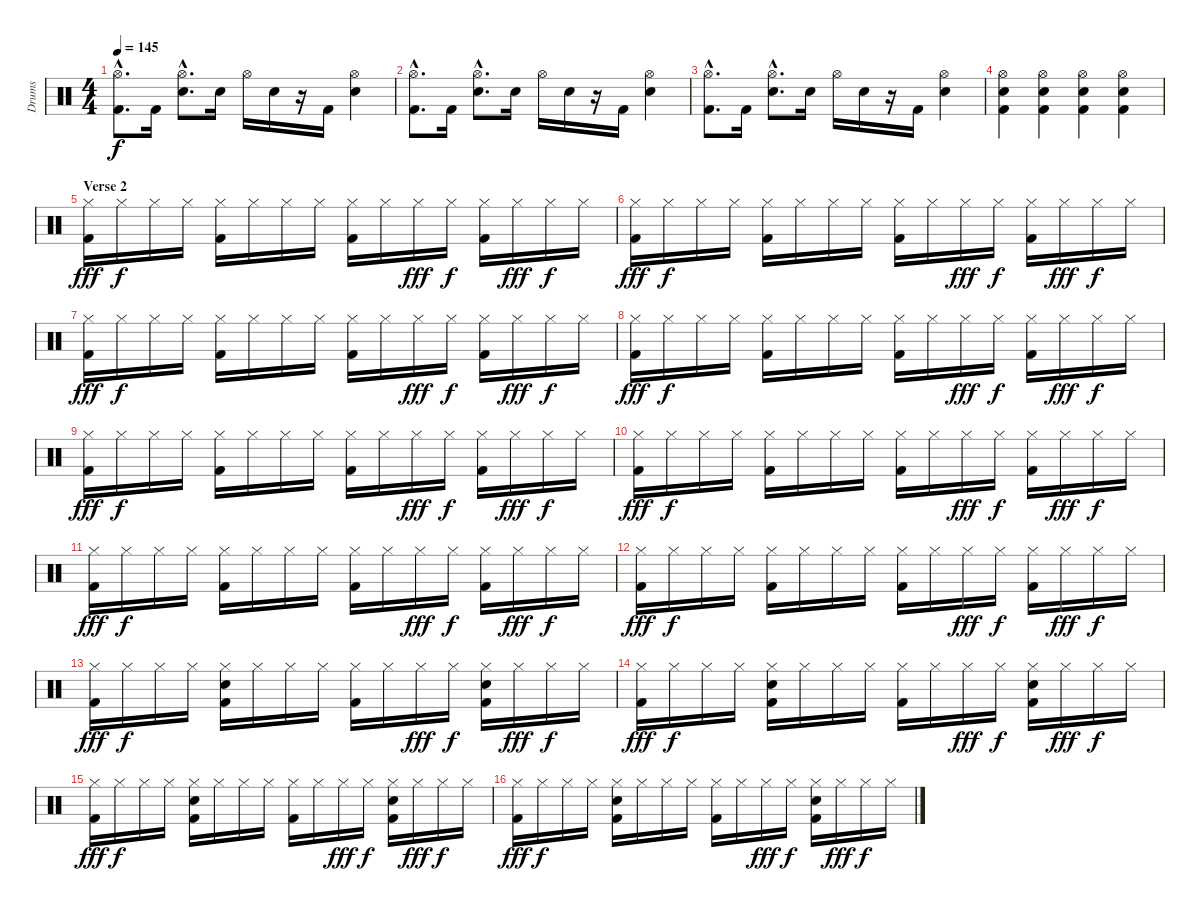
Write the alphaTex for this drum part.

\track ("Drums" "Drums") {instrument percussion}
\staff {score}
\articulation defaults
\ts (4 4)
\tempo 145
\clef neutral
\ks c
("Hi-Hat (open)"{hac} "Kick (hit) 2"{hac}).8{d dy f} "Kick (hit) 2".16 ("Hi-Hat (open)"{hac} "Electric Snare (hit)"{hac}).8{d} "Electric Snare (hit)".16 "Hi-Hat (open)".16 "Electric Snare (hit)".16 r.16 "Kick (hit) 2".16 ("Hi-Hat (open)" "Electric Snare (hit)").4 |
("Hi-Hat (open)"{hac} "Kick (hit) 2"{hac}).8{d} "Kick (hit) 2".16 ("Hi-Hat (open)"{hac} "Electric Snare (hit)"{hac}).8{d} "Electric Snare (hit)".16 "Hi-Hat (open)".16 "Electric Snare (hit)".16 r.16 "Kick (hit) 2".16 ("Hi-Hat (open)" "Electric Snare (hit)").4 |
("Hi-Hat (open)"{hac} "Kick (hit) 2"{hac}).8{d} "Kick (hit) 2".16 ("Hi-Hat (open)"{hac} "Electric Snare (hit)"{hac}).8{d} "Electric Snare (hit)".16 "Hi-Hat (open)".16 "Electric Snare (hit)".16 r.16 "Kick (hit) 2".16 ("Hi-Hat (open)" "Electric Snare (hit)").4 |
("Hi-Hat (open)" "Electric Snare (hit)" "Kick (hit) 2").4 ("Hi-Hat (open)" "Electric Snare (hit)" "Kick (hit) 2").4 ("Hi-Hat (open)" "Electric Snare (hit)" "Kick (hit) 2").4 ("Hi-Hat (open)" "Electric Snare (hit)" "Kick (hit) 2").4 |
\section ("" "Verse 2")
("Hi-Hat (closed)" "Kick (hit) 2").16{dy fff} "Hi-Hat (closed)".16{dy f} "Hi-Hat (closed)".16 "Hi-Hat (closed)".16 ("Hi-Hat (closed)" "Kick (hit) 2").16 "Hi-Hat (closed)".16 "Hi-Hat (closed)".16 "Hi-Hat (closed)".16 ("Hi-Hat (closed)" "Kick (hit) 2").16 "Hi-Hat (closed)".16 "Hi-Hat (closed)".16{dy fff} "Hi-Hat (closed)".16{dy f} ("Hi-Hat (closed)" "Kick (hit) 2").16 "Hi-Hat (closed)".16{dy fff} "Hi-Hat (closed)".16{dy f} "Hi-Hat (closed)".16 |
("Hi-Hat (closed)" "Kick (hit) 2").16{dy fff} "Hi-Hat (closed)".16{dy f} "Hi-Hat (closed)".16 "Hi-Hat (closed)".16 ("Hi-Hat (closed)" "Kick (hit) 2").16 "Hi-Hat (closed)".16 "Hi-Hat (closed)".16 "Hi-Hat (closed)".16 ("Hi-Hat (closed)" "Kick (hit) 2").16 "Hi-Hat (closed)".16 "Hi-Hat (closed)".16{dy fff} "Hi-Hat (closed)".16{dy f} ("Hi-Hat (closed)" "Kick (hit) 2").16 "Hi-Hat (closed)".16{dy fff} "Hi-Hat (closed)".16{dy f} "Hi-Hat (closed)".16 |
("Hi-Hat (closed)" "Kick (hit) 2").16{dy fff} "Hi-Hat (closed)".16{dy f} "Hi-Hat (closed)".16 "Hi-Hat (closed)".16 ("Hi-Hat (closed)" "Kick (hit) 2").16 "Hi-Hat (closed)".16 "Hi-Hat (closed)".16 "Hi-Hat (closed)".16 ("Hi-Hat (closed)" "Kick (hit) 2").16 "Hi-Hat (closed)".16 "Hi-Hat (closed)".16{dy fff} "Hi-Hat (closed)".16{dy f} ("Hi-Hat (closed)" "Kick (hit) 2").16 "Hi-Hat (closed)".16{dy fff} "Hi-Hat (closed)".16{dy f} "Hi-Hat (closed)".16 |
("Hi-Hat (closed)" "Kick (hit) 2").16{dy fff} "Hi-Hat (closed)".16{dy f} "Hi-Hat (closed)".16 "Hi-Hat (closed)".16 ("Hi-Hat (closed)" "Kick (hit) 2").16 "Hi-Hat (closed)".16 "Hi-Hat (closed)".16 "Hi-Hat (closed)".16 ("Hi-Hat (closed)" "Kick (hit) 2").16 "Hi-Hat (closed)".16 "Hi-Hat (closed)".16{dy fff} "Hi-Hat (closed)".16{dy f} ("Hi-Hat (closed)" "Kick (hit) 2").16 "Hi-Hat (closed)".16{dy fff} "Hi-Hat (closed)".16{dy f} "Hi-Hat (closed)".16 |
("Hi-Hat (closed)" "Kick (hit) 2").16{dy fff} "Hi-Hat (closed)".16{dy f} "Hi-Hat (closed)".16 "Hi-Hat (closed)".16 ("Hi-Hat (closed)" "Kick (hit) 2").16 "Hi-Hat (closed)".16 "Hi-Hat (closed)".16 "Hi-Hat (closed)".16 ("Hi-Hat (closed)" "Kick (hit) 2").16 "Hi-Hat (closed)".16 "Hi-Hat (closed)".16{dy fff} "Hi-Hat (closed)".16{dy f} ("Hi-Hat (closed)" "Kick (hit) 2").16 "Hi-Hat (closed)".16{dy fff} "Hi-Hat (closed)".16{dy f} "Hi-Hat (closed)".16 |
("Hi-Hat (closed)" "Kick (hit) 2").16{dy fff} "Hi-Hat (closed)".16{dy f} "Hi-Hat (closed)".16 "Hi-Hat (closed)".16 ("Hi-Hat (closed)" "Kick (hit) 2").16 "Hi-Hat (closed)".16 "Hi-Hat (closed)".16 "Hi-Hat (closed)".16 ("Hi-Hat (closed)" "Kick (hit) 2").16 "Hi-Hat (closed)".16 "Hi-Hat (closed)".16{dy fff} "Hi-Hat (closed)".16{dy f} ("Hi-Hat (closed)" "Kick (hit) 2").16 "Hi-Hat (closed)".16{dy fff} "Hi-Hat (closed)".16{dy f} "Hi-Hat (closed)".16 |
("Hi-Hat (closed)" "Kick (hit) 2").16{dy fff} "Hi-Hat (closed)".16{dy f} "Hi-Hat (closed)".16 "Hi-Hat (closed)".16 ("Hi-Hat (closed)" "Kick (hit) 2").16 "Hi-Hat (closed)".16 "Hi-Hat (closed)".16 "Hi-Hat (closed)".16 ("Hi-Hat (closed)" "Kick (hit) 2").16 "Hi-Hat (closed)".16 "Hi-Hat (closed)".16{dy fff} "Hi-Hat (closed)".16{dy f} ("Hi-Hat (closed)" "Kick (hit) 2").16 "Hi-Hat (closed)".16{dy fff} "Hi-Hat (closed)".16{dy f} "Hi-Hat (closed)".16 |
("Hi-Hat (closed)" "Kick (hit) 2").16{dy fff} "Hi-Hat (closed)".16{dy f} "Hi-Hat (closed)".16 "Hi-Hat (closed)".16 ("Hi-Hat (closed)" "Kick (hit) 2").16 "Hi-Hat (closed)".16 "Hi-Hat (closed)".16 "Hi-Hat (closed)".16 ("Hi-Hat (closed)" "Kick (hit) 2").16 "Hi-Hat (closed)".16 "Hi-Hat (closed)".16{dy fff} "Hi-Hat (closed)".16{dy f} ("Hi-Hat (closed)" "Kick (hit) 2").16 "Hi-Hat (closed)".16{dy fff} "Hi-Hat (closed)".16{dy f} "Hi-Hat (closed)".16 |
("Hi-Hat (closed)" "Kick (hit) 2").16{dy fff} "Hi-Hat (closed)".16{dy f} "Hi-Hat (closed)".16 "Hi-Hat (closed)".16 ("Hi-Hat (closed)" "Electric Snare (hit)" "Kick (hit) 2").16 "Hi-Hat (closed)".16 "Hi-Hat (closed)".16 "Hi-Hat (closed)".16 ("Hi-Hat (closed)" "Kick (hit) 2").16 "Hi-Hat (closed)".16 "Hi-Hat (closed)".16{dy fff} "Hi-Hat (closed)".16{dy f} ("Hi-Hat (closed)" "Electric Snare (hit)" "Kick (hit) 2").16 "Hi-Hat (closed)".16{dy fff} "Hi-Hat (closed)".16{dy f} "Hi-Hat (closed)".16 |
("Hi-Hat (closed)" "Kick (hit) 2").16{dy fff} "Hi-Hat (closed)".16{dy f} "Hi-Hat (closed)".16 "Hi-Hat (closed)".16 ("Hi-Hat (closed)" "Electric Snare (hit)" "Kick (hit) 2").16 "Hi-Hat (closed)".16 "Hi-Hat (closed)".16 "Hi-Hat (closed)".16 ("Hi-Hat (closed)" "Kick (hit) 2").16 "Hi-Hat (closed)".16 "Hi-Hat (closed)".16{dy fff} "Hi-Hat (closed)".16{dy f} ("Hi-Hat (closed)" "Electric Snare (hit)" "Kick (hit) 2").16 "Hi-Hat (closed)".16{dy fff} "Hi-Hat (closed)".16{dy f} "Hi-Hat (closed)".16 |
("Hi-Hat (closed)" "Kick (hit) 2").16{dy fff} "Hi-Hat (closed)".16{dy f} "Hi-Hat (closed)".16 "Hi-Hat (closed)".16 ("Hi-Hat (closed)" "Electric Snare (hit)" "Kick (hit) 2").16 "Hi-Hat (closed)".16 "Hi-Hat (closed)".16 "Hi-Hat (closed)".16 ("Hi-Hat (closed)" "Kick (hit) 2").16 "Hi-Hat (closed)".16 "Hi-Hat (closed)".16{dy fff} "Hi-Hat (closed)".16{dy f} ("Hi-Hat (closed)" "Electric Snare (hit)" "Kick (hit) 2").16 "Hi-Hat (closed)".16{dy fff} "Hi-Hat (closed)".16{dy f} "Hi-Hat (closed)".16 |
("Hi-Hat (closed)" "Kick (hit) 2").16{dy fff} "Hi-Hat (closed)".16{dy f} "Hi-Hat (closed)".16 "Hi-Hat (closed)".16 ("Hi-Hat (closed)" "Electric Snare (hit)" "Kick (hit) 2").16 "Hi-Hat (closed)".16 "Hi-Hat (closed)".16 "Hi-Hat (closed)".16 ("Hi-Hat (closed)" "Kick (hit) 2").16 "Hi-Hat (closed)".16 "Hi-Hat (closed)".16{dy fff} "Hi-Hat (closed)".16{dy f} ("Hi-Hat (closed)" "Electric Snare (hit)" "Kick (hit) 2").16 "Hi-Hat (closed)".16{dy fff} "Hi-Hat (closed)".16{dy f} "Hi-Hat (closed)".16
